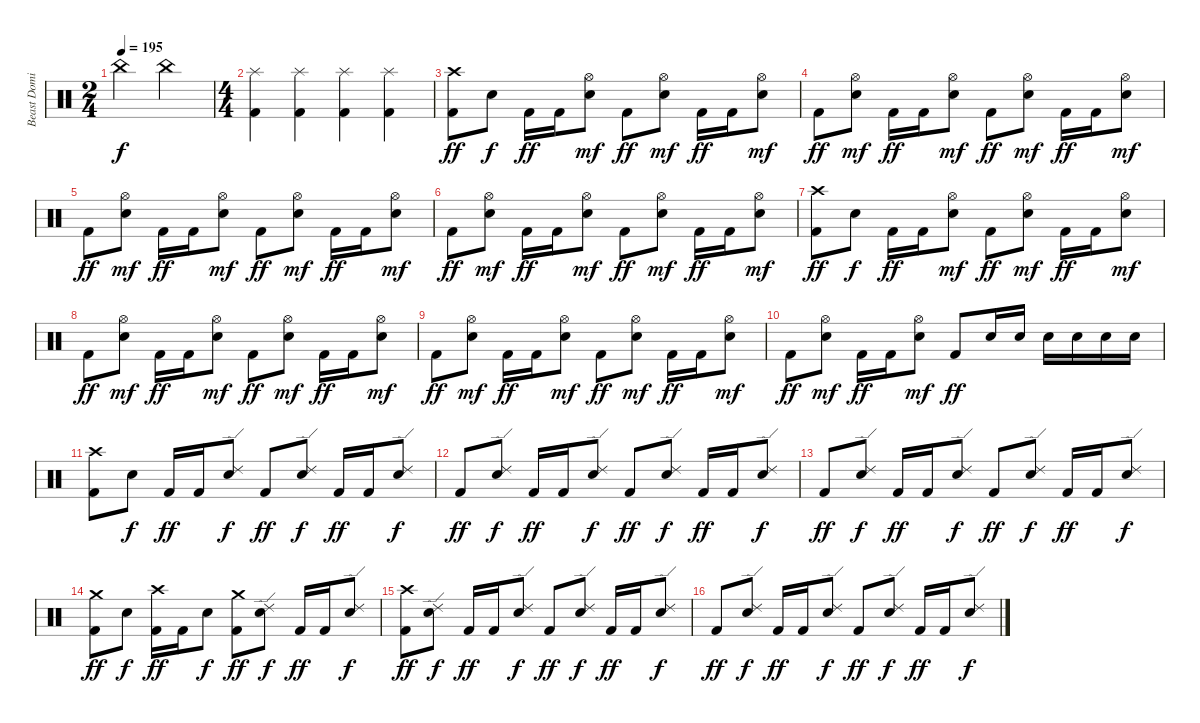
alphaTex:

\track ("Beast Dominator" "Beast Domi") {instrument percussion}
\staff {score}
\articulation defaults
\ts (2 4)
\tempo 195
\clef neutral
\ks c "China (hit)".4{dy f} "China (hit)".4
|
\ts (4 4)
("Splash (hit)" "Kick (hit) 2").4 ("Splash (hit)" "Kick (hit) 2").4 ("Splash (hit)" "Kick (hit) 2").4 ("Splash (hit)" "Kick (hit) 2").4 |
("Crash high (hit)" "Kick (hit) 2").8{dy ff} "Snare (hit) 2".8{dy f} "Kick (hit) 2".16{dy ff} "Kick (hit) 2".16 ("Hi-Hat (open)" "Snare (hit) 2").8{dy mf} "Kick (hit) 2".8{dy ff} ("Hi-Hat (open)" "Snare (hit) 2").8{dy mf} "Kick (hit) 2".16{dy ff} "Kick (hit) 2".16 ("Hi-Hat (open)" "Snare (hit) 2").8{dy mf} |
"Kick (hit) 2".8{dy ff} ("Hi-Hat (open)" "Snare (hit) 2").8{dy mf} "Kick (hit) 2".16{dy ff} "Kick (hit) 2".16 ("Hi-Hat (open)" "Snare (hit) 2").8{dy mf} "Kick (hit) 2".8{dy ff} ("Hi-Hat (open)" "Snare (hit) 2").8{dy mf} "Kick (hit) 2".16{dy ff} "Kick (hit) 2".16 ("Hi-Hat (open)" "Snare (hit) 2").8{dy mf} |
"Kick (hit) 2".8{dy ff} ("Hi-Hat (open)" "Snare (hit) 2").8{dy mf} "Kick (hit) 2".16{dy ff} "Kick (hit) 2".16 ("Hi-Hat (open)" "Snare (hit) 2").8{dy mf} "Kick (hit) 2".8{dy ff} ("Hi-Hat (open)" "Snare (hit) 2").8{dy mf} "Kick (hit) 2".16{dy ff} "Kick (hit) 2".16 ("Hi-Hat (open)" "Snare (hit) 2").8{dy mf} |
"Kick (hit) 2".8{dy ff} ("Hi-Hat (open)" "Snare (hit) 2").8{dy mf} "Kick (hit) 2".16{dy ff} "Kick (hit) 2".16 ("Hi-Hat (open)" "Snare (hit) 2").8{dy mf} "Kick (hit) 2".8{dy ff} ("Hi-Hat (open)" "Snare (hit) 2").8{dy mf} "Kick (hit) 2".16{dy ff} "Kick (hit) 2".16 ("Hi-Hat (open)" "Snare (hit) 2").8{dy mf} |
("Crash high (hit)" "Kick (hit) 2").8{dy ff} "Snare (hit) 2".8{dy f} "Kick (hit) 2".16{dy ff} "Kick (hit) 2".16 ("Hi-Hat (open)" "Snare (hit) 2").8{dy mf} "Kick (hit) 2".8{dy ff} ("Hi-Hat (open)" "Snare (hit) 2").8{dy mf} "Kick (hit) 2".16{dy ff} "Kick (hit) 2".16 ("Hi-Hat (open)" "Snare (hit) 2").8{dy mf} |
"Kick (hit) 2".8{dy ff} ("Hi-Hat (open)" "Snare (hit) 2").8{dy mf} "Kick (hit) 2".16{dy ff} "Kick (hit) 2".16 ("Hi-Hat (open)" "Snare (hit) 2").8{dy mf} "Kick (hit) 2".8{dy ff} ("Hi-Hat (open)" "Snare (hit) 2").8{dy mf} "Kick (hit) 2".16{dy ff} "Kick (hit) 2".16 ("Hi-Hat (open)" "Snare (hit) 2").8{dy mf} |
"Kick (hit) 2".8{dy ff} ("Hi-Hat (open)" "Snare (hit) 2").8{dy mf} "Kick (hit) 2".16{dy ff} "Kick (hit) 2".16 ("Hi-Hat (open)" "Snare (hit) 2").8{dy mf} "Kick (hit) 2".8{dy ff} ("Hi-Hat (open)" "Snare (hit) 2").8{dy mf} "Kick (hit) 2".16{dy ff} "Kick (hit) 2".16 ("Hi-Hat (open)" "Snare (hit) 2").8{dy mf} |
"Kick (hit) 2".8{dy ff} ("Hi-Hat (open)" "Snare (hit) 2").8{dy mf} "Kick (hit) 2".16{dy ff} "Kick (hit) 2".16 ("Hi-Hat (open)" "Snare (hit) 2").8{dy mf} "Kick (hit) 2".8{dy ff} "Snare (hit) 2".16 "Snare (hit) 2".16 "Snare (hit) 2".16 "Snare (hit) 2".16 "Snare (hit) 2".16 "Snare (hit) 2".16 |
("Crash high (hit)" "Kick (hit) 2").8 "Snare (hit) 2".8{dy f} "Kick (hit) 2".16{dy ff} "Kick (hit) 2".16 ("Ride (edge) 2" "Snare (hit) 2").8{dy f} "Kick (hit) 2".8{dy ff} ("Ride (edge) 2" "Snare (hit) 2").8{dy f} "Kick (hit) 2".16{dy ff} "Kick (hit) 2".16 ("Ride (edge) 2" "Snare (hit) 2").8{dy f} |
"Kick (hit) 2".8{dy ff} ("Ride (edge) 2" "Snare (hit) 2").8{dy f} "Kick (hit) 2".16{dy ff} "Kick (hit) 2".16 ("Ride (edge) 2" "Snare (hit) 2").8{dy f} "Kick (hit) 2".8{dy ff} ("Ride (edge) 2" "Snare (hit) 2").8{dy f} "Kick (hit) 2".16{dy ff} "Kick (hit) 2".16 ("Ride (edge) 2" "Snare (hit) 2").8{dy f} |
"Kick (hit) 2".8{dy ff} ("Ride (edge) 2" "Snare (hit) 2").8{dy f} "Kick (hit) 2".16{dy ff} "Kick (hit) 2".16 ("Ride (edge) 2" "Snare (hit) 2").8{dy f} "Kick (hit) 2".8{dy ff} ("Ride (edge) 2" "Snare (hit) 2").8{dy f} "Kick (hit) 2".16{dy ff} "Kick (hit) 2".16 ("Ride (edge) 2" "Snare (hit) 2").8{dy f} |
("Crash medium (hit)" "Kick (hit) 2").8{dy ff} "Snare (hit) 2".8{dy f} ("Crash high (hit)" "Kick (hit) 2").16{dy ff} "Kick (hit) 2".16 "Snare (hit) 2".8{dy f} ("Crash medium (hit)" "Kick (hit) 2").8{dy ff} ("Ride (edge) 2" "Snare (hit) 2").8{dy f} "Kick (hit) 2".16{dy ff} "Kick (hit) 2".16 ("Ride (edge) 2" "Snare (hit) 2").8{dy f} |
("Crash high (hit)" "Kick (hit) 2").8{dy ff} ("Ride (edge) 2" "Snare (hit) 2").8{dy f} "Kick (hit) 2".16{dy ff} "Kick (hit) 2".16 ("Ride (edge) 2" "Snare (hit) 2").8{dy f} "Kick (hit) 2".8{dy ff} ("Ride (edge) 2" "Snare (hit) 2").8{dy f} "Kick (hit) 2".16{dy ff} "Kick (hit) 2".16 ("Ride (edge) 2" "Snare (hit) 2").8{dy f} |
"Kick (hit) 2".8{dy ff} ("Ride (edge) 2" "Snare (hit) 2").8{dy f} "Kick (hit) 2".16{dy ff} "Kick (hit) 2".16 ("Ride (edge) 2" "Snare (hit) 2").8{dy f} "Kick (hit) 2".8{dy ff} ("Ride (edge) 2" "Snare (hit) 2").8{dy f} "Kick (hit) 2".16{dy ff} "Kick (hit) 2".16 ("Ride (edge) 2" "Snare (hit) 2").8{dy f}
